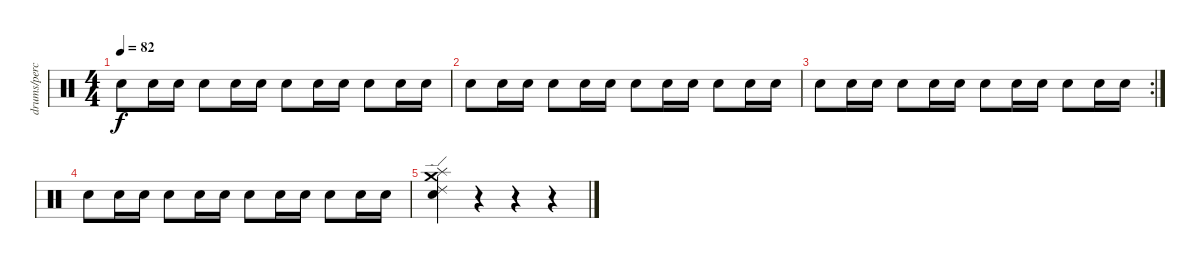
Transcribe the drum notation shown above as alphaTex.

\track ("drums/percussion" "drums/perc") {instrument percussion}
\staff {score}
\articulation defaults
\ts (4 4)
\tempo 82
\clef neutral
\ks c "Electric Snare (hit)".8{dy f} "Electric Snare (hit)".16 "Electric Snare (hit)".16 "Electric Snare (hit)".8 "Electric Snare (hit)".16 "Electric Snare (hit)".16 "Electric Snare (hit)".8 "Electric Snare (hit)".16 "Electric Snare (hit)".16 "Electric Snare (hit)".8 "Electric Snare (hit)".16 "Electric Snare (hit)".16
|
"Electric Snare (hit)".8 "Electric Snare (hit)".16 "Electric Snare (hit)".16 "Electric Snare (hit)".8 "Electric Snare (hit)".16 "Electric Snare (hit)".16 "Electric Snare (hit)".8 "Electric Snare (hit)".16 "Electric Snare (hit)".16 "Electric Snare (hit)".8 "Electric Snare (hit)".16 "Electric Snare (hit)".16 |
\rc 2 "Electric Snare (hit)".8 "Electric Snare (hit)".16 "Electric Snare (hit)".16 "Electric Snare (hit)".8 "Electric Snare (hit)".16 "Electric Snare (hit)".16 "Electric Snare (hit)".8 "Electric Snare (hit)".16 "Electric Snare (hit)".16 "Electric Snare (hit)".8 "Electric Snare (hit)".16 "Electric Snare (hit)".16
|
"Electric Snare (hit)".8 "Electric Snare (hit)".16 "Electric Snare (hit)".16 "Electric Snare (hit)".8 "Electric Snare (hit)".16 "Electric Snare (hit)".16 "Electric Snare (hit)".8 "Electric Snare (hit)".16 "Electric Snare (hit)".16 "Electric Snare (hit)".8 "Electric Snare (hit)".16 "Electric Snare (hit)".16 |
("Splash (hit)" "Ride (edge) 2" "Crash medium (hit)" "Electric Snare (hit)").4 r.4 r.4 r.4
